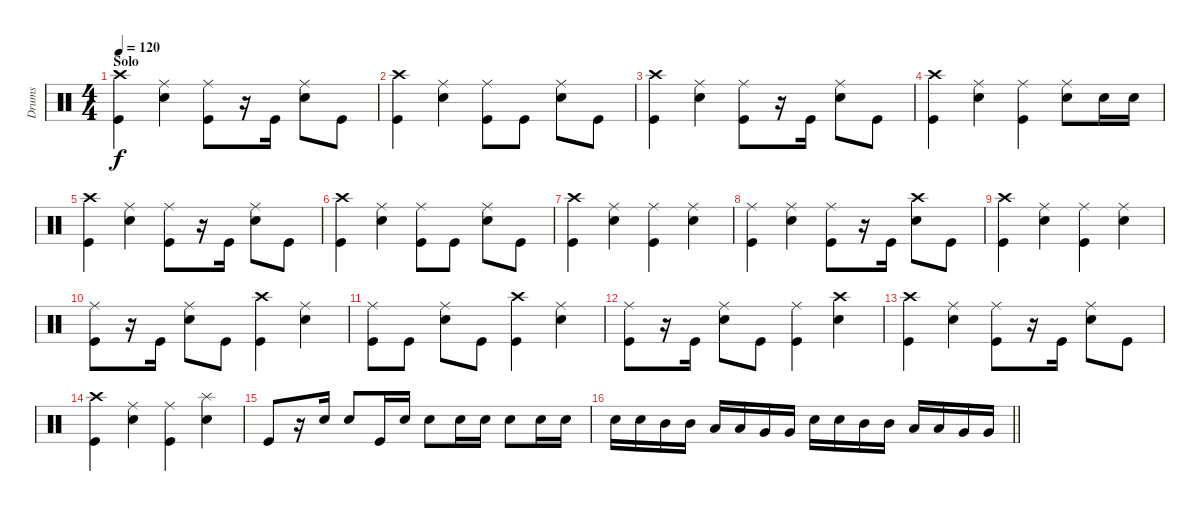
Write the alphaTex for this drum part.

\track ("Drums" "Drums") {instrument percussion}
\staff {score}
\articulation defaults
\ts (4 4)
\section ("" "Solo")
\tempo 120
\clef neutral
\ks c
("Crash high (hit)" "Kick (hit)").4{dy f} ("Ride (middle)" "Snare (hit) 2").4 ("Ride (middle)" "Kick (hit)").8 r.16 "Kick (hit)".16 ("Ride (middle)" "Snare (hit) 2").8 "Kick (hit)".8 |
("Crash high (hit)" "Kick (hit)").4 ("Ride (middle)" "Snare (hit) 2").4 ("Ride (middle)" "Kick (hit)").8 "Kick (hit)".8 ("Ride (middle)" "Snare (hit) 2").8 "Kick (hit)".8 |
("Crash high (hit)" "Kick (hit)").4 ("Ride (middle)" "Snare (hit) 2").4 ("Ride (middle)" "Kick (hit)").8 r.16 "Kick (hit)".16 ("Ride (middle)" "Snare (hit) 2").8 "Kick (hit)".8 |
("Crash high (hit)" "Kick (hit)").4 ("Ride (middle)" "Snare (hit) 2").4 ("Ride (middle)" "Kick (hit)").4 ("Ride (middle)" "Snare (hit) 2").8 "Snare (hit) 2".16 "Snare (hit) 2".16 |
("Crash high (hit)" "Kick (hit)").4 ("Ride (middle)" "Snare (hit) 2").4 ("Ride (middle)" "Kick (hit)").8 r.16 "Kick (hit)".16 ("Ride (middle)" "Snare (hit) 2").8 "Kick (hit)".8 |
("Crash high (hit)" "Kick (hit)").4 ("Ride (middle)" "Snare (hit) 2").4 ("Ride (middle)" "Kick (hit)").8 "Kick (hit)".8 ("Ride (middle)" "Snare (hit) 2").8 "Kick (hit)".8 |
("Crash high (hit)" "Kick (hit)").4 ("Ride (middle)" "Snare (hit) 2").4 ("Ride (middle)" "Kick (hit)").4 ("Ride (middle)" "Snare (hit) 2").4 |
("Ride (middle)" "Kick (hit)").4 ("Ride (middle)" "Snare (hit) 2").4 ("Ride (middle)" "Kick (hit)").8 r.16 "Kick (hit)".16 ("Crash high (hit)" "Snare (hit) 2").8 "Kick (hit)".8 |
("Crash high (hit)" "Kick (hit)").4 ("Ride (middle)" "Snare (hit) 2").4 ("Ride (middle)" "Kick (hit)").4 ("Ride (middle)" "Snare (hit) 2").4 |
("Ride (middle)" "Kick (hit)").8 r.16 "Kick (hit)".16 ("Ride (middle)" "Snare (hit) 2").8 "Kick (hit)".8 ("Crash high (hit)" "Kick (hit)").4 ("Ride (middle)" "Snare (hit) 2").4 |
("Ride (middle)" "Kick (hit)").8 "Kick (hit)".8 ("Ride (middle)" "Snare (hit) 2").8 "Kick (hit)".8 ("Crash high (hit)" "Kick (hit)").4 ("Ride (middle)" "Snare (hit) 2").4 |
("Ride (middle)" "Kick (hit)").8 r.16 "Kick (hit)".16 ("Ride (middle)" "Snare (hit) 2").8 "Kick (hit)".8 ("Ride (middle)" "Kick (hit)").4 ("Crash high (hit)" "Snare (hit) 2").4 |
("Crash high (hit)" "Kick (hit)").4 ("Ride (middle)" "Snare (hit) 2").4 ("Ride (middle)" "Kick (hit)").8 r.16 "Kick (hit)".16 ("Ride (middle)" "Snare (hit) 2").8 "Kick (hit)".8 |
("Crash high (hit)" "Kick (hit)").4 ("Ride (middle)" "Snare (hit) 2").4 ("Ride (middle)" "Kick (hit)").4 ("Splash (hit)" "Snare (hit) 2").4 |
"Kick (hit)".8 r.16 "Snare (hit) 2".16 "Snare (hit) 2".8 "Kick (hit)".16 "Snare (hit) 2".16 "Snare (hit) 2".8 "Snare (hit) 2".16 "Snare (hit) 2".16 "Snare (hit) 2".8 "Snare (hit) 2".16 "Snare (hit) 2".16 |
\barLineRight lightlight "Snare (hit) 2".16 "Snare (hit) 2".16 "Mid Tom (hit)".16 "Mid Tom (hit)".16 "Low Tom (hit)".16 "Low Tom (hit)".16 "Very Low Tom (hit)".16 "Very Low Tom (hit)".16 "Snare (hit) 2".16 "Snare (hit) 2".16 "Mid Tom (hit)".16 "Mid Tom (hit)".16 "Low Tom (hit)".16 "Low Tom (hit)".16 "Very Low Tom (hit)".16 "Very Low Tom (hit)".16
